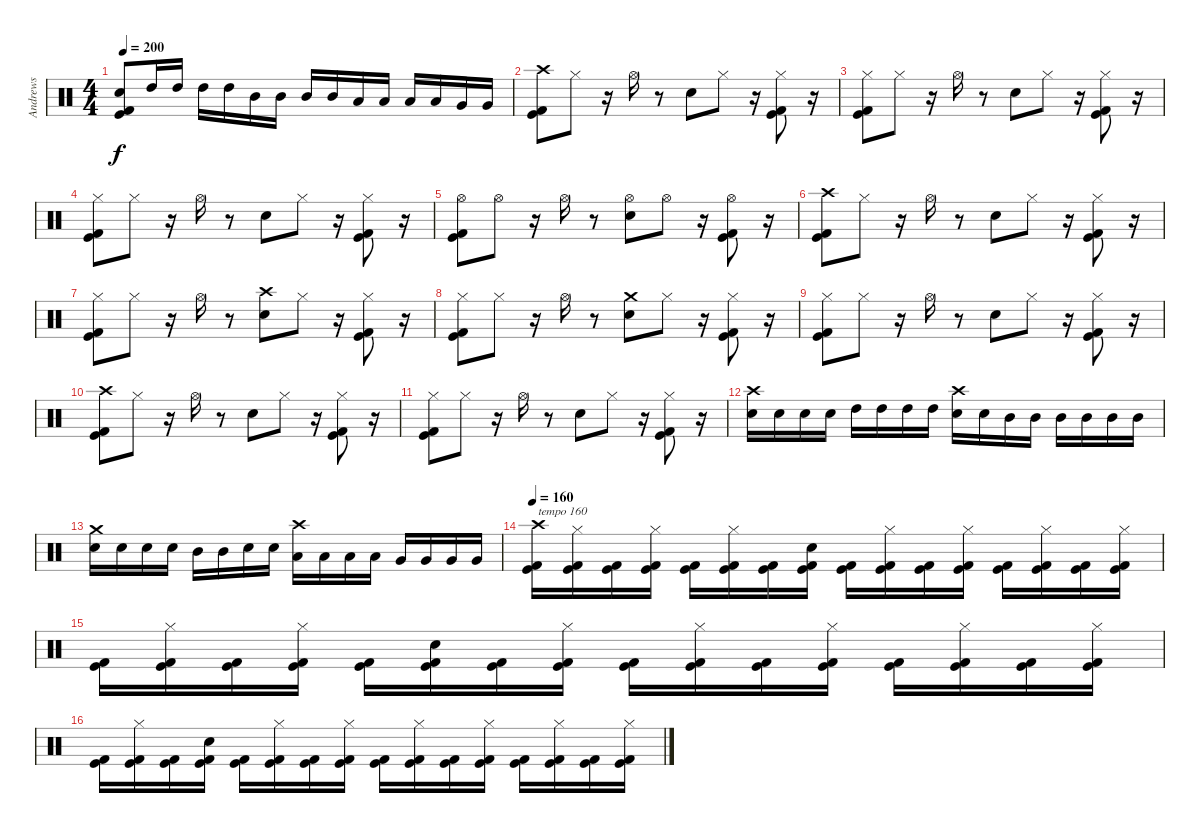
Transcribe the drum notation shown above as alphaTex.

\track ("Andrews" "Andrews") {instrument percussion}
\staff {score}
\articulation defaults
\ts (4 4)
\tempo 200
\clef neutral
\ks c
("Electric Snare (hit)" "Kick (hit) 2" "Kick (hit)").8{dy f} "High Tom (hit)".16 "High Tom (hit)".16 "High Tom (hit)".16 "High Tom (hit)".16 "Mid Tom (hit)".16 "Mid Tom (hit)".16 "Mid Tom (hit)".16 "Mid Tom (hit)".16 "Low Tom (hit)".16 "Low Tom (hit)".16 "Low Tom (hit)".16 "Low Tom (hit)".16 "Very Low Tom (hit)".16 "Very Low Tom (hit)".16 |
("Crash high (hit)" "Kick (hit) 2" "Kick (hit)").8 "Hi-Hat (closed)".8 r.16 "Hi-Hat (open)".16 r.8 "Electric Snare (hit)".8 "Hi-Hat (closed)".8 r.16 ("Hi-Hat (closed)" "Kick (hit) 2" "Kick (hit)").8 r.16 |
("Hi-Hat (closed)" "Kick (hit) 2" "Kick (hit)").8 "Hi-Hat (closed)".8 r.16 "Hi-Hat (open)".16 r.8 "Electric Snare (hit)".8 "Hi-Hat (closed)".8 r.16 ("Hi-Hat (closed)" "Kick (hit) 2" "Kick (hit)").8 r.16 |
("Hi-Hat (closed)" "Kick (hit) 2" "Kick (hit)").8 "Hi-Hat (closed)".8 r.16 "Hi-Hat (open)".16 r.8 "Electric Snare (hit)".8 "Hi-Hat (closed)".8 r.16 ("Hi-Hat (closed)" "Kick (hit) 2" "Kick (hit)").8 r.16 |
("Hi-Hat (open)" "Kick (hit) 2" "Kick (hit)").8 "Hi-Hat (open)".8 r.16 "Hi-Hat (open)".16 r.8 ("Electric Snare (hit)" "Hi-Hat (open)").8 "Hi-Hat (open)".8 r.16 ("Hi-Hat (open)" "Kick (hit) 2" "Kick (hit)").8 r.16 |
("Crash high (hit)" "Kick (hit) 2" "Kick (hit)").8 "Hi-Hat (closed)".8 r.16 "Hi-Hat (open)".16 r.8 "Electric Snare (hit)".8 "Hi-Hat (closed)".8 r.16 ("Hi-Hat (closed)" "Kick (hit) 2" "Kick (hit)").8 r.16 |
("Hi-Hat (closed)" "Kick (hit) 2" "Kick (hit)").8 "Hi-Hat (closed)".8 r.16 "Hi-Hat (open)".16 r.8 ("Crash high (hit)" "Electric Snare (hit)").8 "Hi-Hat (closed)".8 r.16 ("Hi-Hat (closed)" "Kick (hit) 2" "Kick (hit)").8 r.16 |
("Hi-Hat (closed)" "Kick (hit) 2" "Kick (hit)").8 "Hi-Hat (closed)".8 r.16 "Hi-Hat (open)".16 r.8 ("Crash medium (hit)" "Electric Snare (hit)").8 "Hi-Hat (closed)".8 r.16 ("Hi-Hat (closed)" "Kick (hit) 2" "Kick (hit)").8 r.16 |
("Hi-Hat (closed)" "Kick (hit) 2" "Kick (hit)").8 "Hi-Hat (closed)".8 r.16 "Hi-Hat (open)".16 r.8 "Electric Snare (hit)".8 "Hi-Hat (closed)".8 r.16 ("Hi-Hat (closed)" "Kick (hit) 2" "Kick (hit)").8 r.16 |
("Crash high (hit)" "Kick (hit) 2" "Kick (hit)").8 "Hi-Hat (closed)".8 r.16 "Hi-Hat (open)".16 r.8 "Electric Snare (hit)".8 "Hi-Hat (closed)".8 r.16 ("Hi-Hat (closed)" "Kick (hit) 2" "Kick (hit)").8 r.16 |
("Hi-Hat (closed)" "Kick (hit) 2" "Kick (hit)").8 "Hi-Hat (closed)".8 r.16 "Hi-Hat (open)".16 r.8 "Electric Snare (hit)".8 "Hi-Hat (closed)".8 r.16 ("Hi-Hat (closed)" "Kick (hit) 2" "Kick (hit)").8 r.16 |
("Crash high (hit)" "Electric Snare (hit)").16 "Electric Snare (hit)".16 "Electric Snare (hit)".16 "Electric Snare (hit)".16 "High Tom (hit)".16 "High Tom (hit)".16 "High Tom (hit)".16 "High Tom (hit)".16 ("Crash high (hit)" "Electric Snare (hit)").16 "Electric Snare (hit)".16 "Mid Tom (hit)".16 "Mid Tom (hit)".16 "Mid Tom (hit)".16 "Mid Tom (hit)".16 "Mid Tom (hit)".16 "Mid Tom (hit)".16 |
("Crash medium (hit)" "Electric Snare (hit)").16 "Electric Snare (hit)".16 "Electric Snare (hit)".16 "Electric Snare (hit)".16 "Mid Tom (hit)".16 "Mid Tom (hit)".16 "Electric Snare (hit)".16 "Electric Snare (hit)".16 ("Crash high (hit)" "Low Tom (hit)").16 "Low Tom (hit)".16 "Low Tom (hit)".16 "Low Tom (hit)".16 "Very Low Tom (hit)".16 "Very Low Tom (hit)".16 "Very Low Tom (hit)".16 "Very Low Tom (hit)".16 |
\tempo 160
("Crash high (hit)" "Kick (hit) 2" "Kick (hit)").16{txt "tempo 160"} ("Hi-Hat (closed)" "Kick (hit) 2" "Kick (hit)").16 ("Kick (hit) 2" "Kick (hit)").16 ("Hi-Hat (closed)" "Kick (hit) 2" "Kick (hit)").16 ("Kick (hit) 2" "Kick (hit)").16 ("Hi-Hat (closed)" "Kick (hit) 2" "Kick (hit)").16 ("Kick (hit) 2" "Kick (hit)").16 ("Electric Snare (hit)" "Kick (hit) 2" "Kick (hit)").16 ("Kick (hit) 2" "Kick (hit)").16 ("Hi-Hat (closed)" "Kick (hit) 2" "Kick (hit)").16 ("Kick (hit) 2" "Kick (hit)").16 ("Hi-Hat (closed)" "Kick (hit) 2" "Kick (hit)").16 ("Kick (hit) 2" "Kick (hit)").16 ("Hi-Hat (closed)" "Kick (hit) 2" "Kick (hit)").16 ("Kick (hit) 2" "Kick (hit)").16 ("Hi-Hat (closed)" "Kick (hit) 2" "Kick (hit)").16 |
("Kick (hit) 2" "Kick (hit)").16 ("Hi-Hat (closed)" "Kick (hit) 2" "Kick (hit)").16 ("Kick (hit) 2" "Kick (hit)").16 ("Hi-Hat (closed)" "Kick (hit) 2" "Kick (hit)").16 ("Kick (hit) 2" "Kick (hit)").16 ("Electric Snare (hit)" "Kick (hit) 2" "Kick (hit)").16 ("Kick (hit) 2" "Kick (hit)").16 ("Hi-Hat (closed)" "Kick (hit) 2" "Kick (hit)").16 ("Kick (hit) 2" "Kick (hit)").16 ("Hi-Hat (closed)" "Kick (hit) 2" "Kick (hit)").16 ("Kick (hit) 2" "Kick (hit)").16 ("Hi-Hat (closed)" "Kick (hit) 2" "Kick (hit)").16 ("Kick (hit) 2" "Kick (hit)").16 ("Hi-Hat (closed)" "Kick (hit) 2" "Kick (hit)").16 ("Kick (hit) 2" "Kick (hit)").16 ("Hi-Hat (closed)" "Kick (hit) 2" "Kick (hit)").16 |
("Kick (hit) 2" "Kick (hit)").16 ("Hi-Hat (closed)" "Kick (hit) 2" "Kick (hit)").16 ("Kick (hit) 2" "Kick (hit)").16 ("Electric Snare (hit)" "Kick (hit) 2" "Kick (hit)").16 ("Kick (hit) 2" "Kick (hit)").16 ("Hi-Hat (closed)" "Kick (hit) 2" "Kick (hit)").16 ("Kick (hit) 2" "Kick (hit)").16 ("Hi-Hat (closed)" "Kick (hit) 2" "Kick (hit)").16 ("Kick (hit) 2" "Kick (hit)").16 ("Hi-Hat (closed)" "Kick (hit) 2" "Kick (hit)").16 ("Kick (hit) 2" "Kick (hit)").16 ("Hi-Hat (closed)" "Kick (hit) 2" "Kick (hit)").16 ("Kick (hit) 2" "Kick (hit)").16 ("Hi-Hat (closed)" "Kick (hit) 2" "Kick (hit)").16 ("Kick (hit) 2" "Kick (hit)").16 ("Hi-Hat (closed)" "Kick (hit) 2" "Kick (hit)").16
